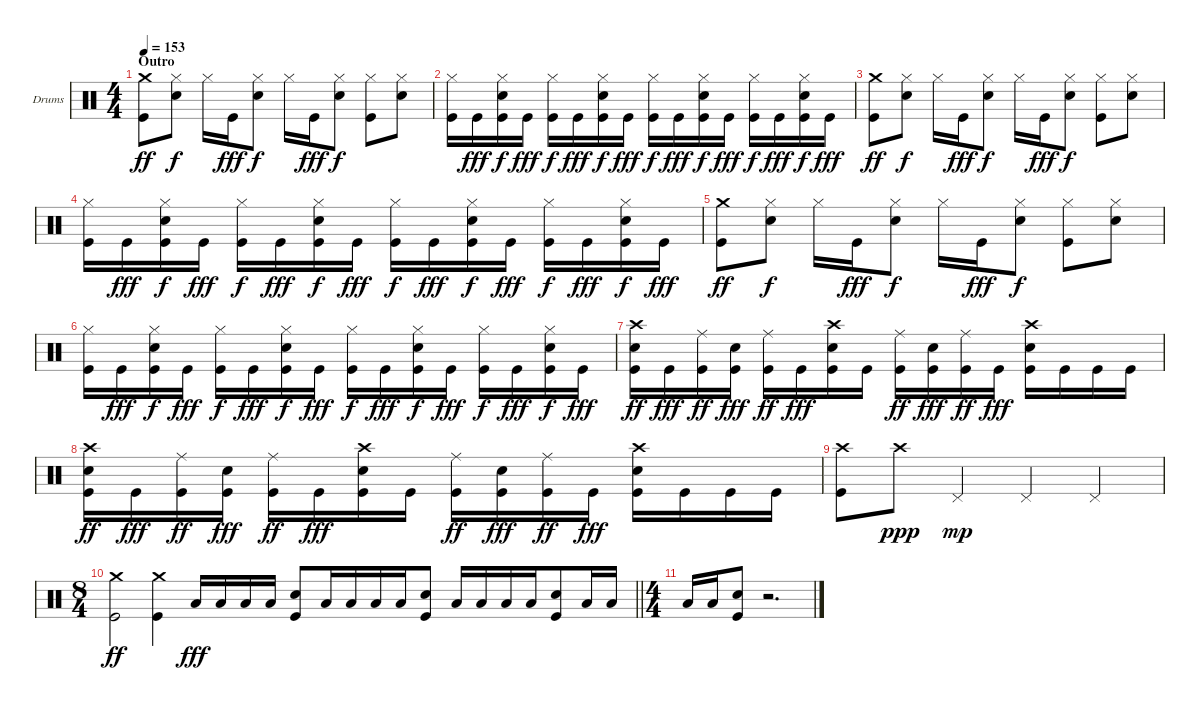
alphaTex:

\bracketExtendMode groupsimilarinstruments
\firstSystemTrackNameOrientation horizontal
\otherSystemsTrackNameOrientation horizontal
\track ("Drumkit" "Drums") {instrument percussion}
\staff {score}
\articulation defaults
\ts (4 4)
\section ("" "Outro")
\tempo 153
\clef neutral
\ks c
("Crash medium (hit)" "Kick (hit)").8{dy ff} ("Hi-Hat (closed)" "Snare (hit) 2").8{dy f} "Hi-Hat (closed)".16 "Kick (hit)".16{dy fff} ("Hi-Hat (closed)" "Snare (hit) 2").8{dy f} "Hi-Hat (closed)".16 "Kick (hit)".16{dy fff} ("Hi-Hat (closed)" "Snare (hit) 2").8{dy f} ("Hi-Hat (closed)" "Kick (hit)").8 ("Hi-Hat (closed)" "Snare (hit) 2").8 |
("Hi-Hat (closed)" "Kick (hit)").16 "Kick (hit)".16{dy fff} ("Hi-Hat (closed)" "Snare (hit) 2" "Kick (hit)").16{dy f} "Kick (hit)".16{dy fff} ("Hi-Hat (closed)" "Kick (hit)").16{dy f} "Kick (hit)".16{dy fff} ("Hi-Hat (closed)" "Snare (hit) 2" "Kick (hit)").16{dy f} "Kick (hit)".16{dy fff} ("Hi-Hat (closed)" "Kick (hit)").16{dy f} "Kick (hit)".16{dy fff} ("Hi-Hat (closed)" "Snare (hit) 2" "Kick (hit)").16{dy f} "Kick (hit)".16{dy fff} ("Hi-Hat (closed)" "Kick (hit)").16{dy f} "Kick (hit)".16{dy fff} ("Hi-Hat (closed)" "Snare (hit) 2" "Kick (hit)").16{dy f} "Kick (hit)".16{dy fff} |
("Crash medium (hit)" "Kick (hit)").8{dy ff} ("Hi-Hat (closed)" "Snare (hit) 2").8{dy f} "Hi-Hat (closed)".16 "Kick (hit)".16{dy fff} ("Hi-Hat (closed)" "Snare (hit) 2").8{dy f} "Hi-Hat (closed)".16 "Kick (hit)".16{dy fff} ("Hi-Hat (closed)" "Snare (hit) 2").8{dy f} ("Hi-Hat (closed)" "Kick (hit)").8 ("Hi-Hat (closed)" "Snare (hit) 2").8 |
("Hi-Hat (closed)" "Kick (hit)").16 "Kick (hit)".16{dy fff} ("Hi-Hat (closed)" "Snare (hit) 2" "Kick (hit)").16{dy f} "Kick (hit)".16{dy fff} ("Hi-Hat (closed)" "Kick (hit)").16{dy f} "Kick (hit)".16{dy fff} ("Hi-Hat (closed)" "Snare (hit) 2" "Kick (hit)").16{dy f} "Kick (hit)".16{dy fff} ("Hi-Hat (closed)" "Kick (hit)").16{dy f} "Kick (hit)".16{dy fff} ("Hi-Hat (closed)" "Snare (hit) 2" "Kick (hit)").16{dy f} "Kick (hit)".16{dy fff} ("Hi-Hat (closed)" "Kick (hit)").16{dy f} "Kick (hit)".16{dy fff} ("Hi-Hat (closed)" "Snare (hit) 2" "Kick (hit)").16{dy f} "Kick (hit)".16{dy fff} |
("Crash medium (hit)" "Kick (hit)").8{dy ff} ("Hi-Hat (closed)" "Snare (hit) 2").8{dy f} "Hi-Hat (closed)".16 "Kick (hit)".16{dy fff} ("Hi-Hat (closed)" "Snare (hit) 2").8{dy f} "Hi-Hat (closed)".16 "Kick (hit)".16{dy fff} ("Hi-Hat (closed)" "Snare (hit) 2").8{dy f} ("Hi-Hat (closed)" "Kick (hit)").8 ("Hi-Hat (closed)" "Snare (hit) 2").8 |
("Hi-Hat (closed)" "Kick (hit)").16 "Kick (hit)".16{dy fff} ("Hi-Hat (closed)" "Snare (hit) 2" "Kick (hit)").16{dy f} "Kick (hit)".16{dy fff} ("Hi-Hat (closed)" "Kick (hit)").16{dy f} "Kick (hit)".16{dy fff} ("Hi-Hat (closed)" "Snare (hit) 2" "Kick (hit)").16{dy f} "Kick (hit)".16{dy fff} ("Hi-Hat (closed)" "Kick (hit)").16{dy f} "Kick (hit)".16{dy fff} ("Hi-Hat (closed)" "Snare (hit) 2" "Kick (hit)").16{dy f} "Kick (hit)".16{dy fff} ("Hi-Hat (closed)" "Kick (hit)").16{dy f} "Kick (hit)".16{dy fff} ("Hi-Hat (closed)" "Snare (hit) 2" "Kick (hit)").16{dy f} "Kick (hit)".16{dy fff} |
("Crash high (hit)" "Snare (hit) 2" "Kick (hit)").16{dy ff} "Kick (hit)".16{dy fff} ("Ride (middle)" "Kick (hit)").16{dy ff} ("Snare (hit) 2" "Kick (hit)").16{dy fff} ("Ride (middle)" "Kick (hit)").16{dy ff} "Kick (hit)".16{dy fff} ("Crash high (hit)" "Snare (hit) 2" "Kick (hit)").16 "Kick (hit)".16 ("Ride (middle)" "Kick (hit)").16{dy ff} ("Snare (hit) 2" "Kick (hit)").16{dy fff} ("Ride (middle)" "Kick (hit)").16{dy ff} "Kick (hit)".16{dy fff} ("Crash high (hit)" "Snare (hit) 2" "Kick (hit)").16 "Kick (hit)".16 "Kick (hit)".16 "Kick (hit)".16 |
("Crash high (hit)" "Snare (hit) 2" "Kick (hit)").16{dy ff} "Kick (hit)".16{dy fff} ("Ride (middle)" "Kick (hit)").16{dy ff} ("Snare (hit) 2" "Kick (hit)").16{dy fff} ("Ride (middle)" "Kick (hit)").16{dy ff} "Kick (hit)".16{dy fff} ("Crash high (hit)" "Snare (hit) 2" "Kick (hit)").16 "Kick (hit)".16 ("Ride (middle)" "Kick (hit)").16{dy ff} ("Snare (hit) 2" "Kick (hit)").16{dy fff} ("Ride (middle)" "Kick (hit)").16{dy ff} "Kick (hit)".16{dy fff} ("Crash high (hit)" "Snare (hit) 2" "Kick (hit)").16 "Kick (hit)".16 "Kick (hit)".16 "Kick (hit)".16 |
("Crash high (hit)" "Kick (hit)").8 "Crash high (hit)".8{dy ppp} "Pedal Hi-Hat (hit)".4{dy mp} "Pedal Hi-Hat (hit)".4 "Pedal Hi-Hat (hit)".4 |
\ts (8 4)
\beaming (8 4 4 4 4)
\barLineRight lightlight
("Crash medium (hit)" "Kick (hit)").2{dy ff} ("Crash medium (hit)" "Kick (hit)").4 "Low Tom (hit)".16{dy fff} "Low Tom (hit)".16 "Low Tom (hit)".16 "Low Tom (hit)".16 ("Snare (hit) 2" "Kick (hit)").8 "Low Tom (hit)".16 "Low Tom (hit)".16 "Low Tom (hit)".16 "Low Tom (hit)".16 ("Snare (hit) 2" "Kick (hit)").8 "Low Tom (hit)".16 "Low Tom (hit)".16 "Low Tom (hit)".16 "Low Tom (hit)".16 ("Snare (hit) 2" "Kick (hit)").8 "Low Tom (hit)".16 "Low Tom (hit)".16 |
\ts (4 4)
\beaming (8 2 2 2 2)
"Low Tom (hit)".16 "Low Tom (hit)".16 ("Snare (hit) 2" "Kick (hit)").8 r.2{d}
